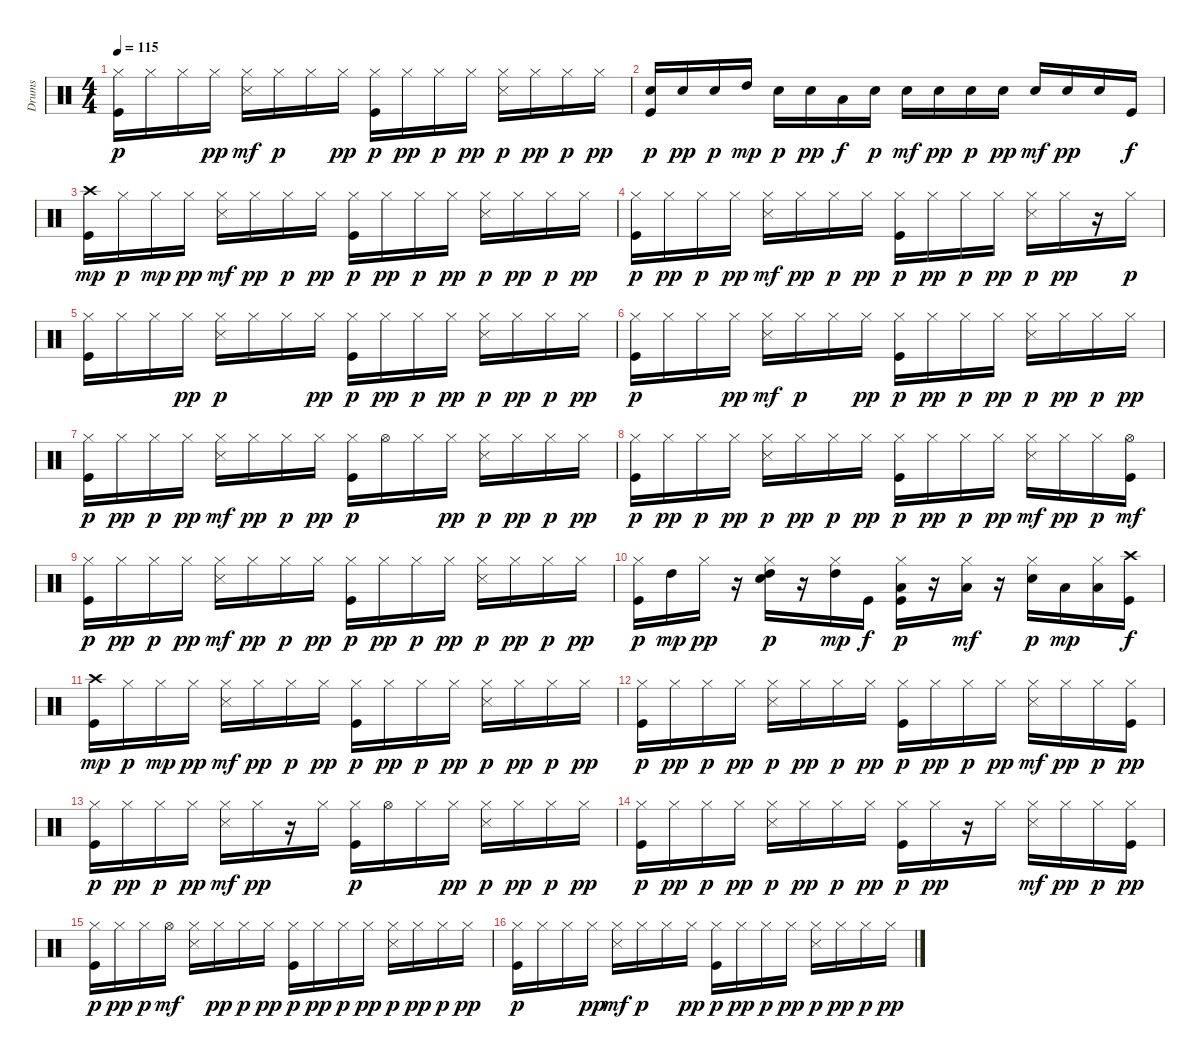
\track ("Drums  " "Drums  ") {instrument percussion}
\staff {score}
\articulation defaults
\ts (4 4)
\tempo 115
\clef neutral
\ks c
("Kick (hit)" "Hi-Hat (closed)").16{dy p} "Hi-Hat (closed)".16 "Hi-Hat (closed)".16 "Hi-Hat (closed)".16{dy pp} ("Hi-Hat (closed)" "Snare (side stick) 3").16{dy mf} "Hi-Hat (closed)".16{dy p} "Hi-Hat (closed)".16 "Hi-Hat (closed)".16{dy pp} ("Kick (hit)" "Hi-Hat (closed)").16{dy p} "Hi-Hat (closed)".16{dy pp} "Hi-Hat (closed)".16{dy p} "Hi-Hat (closed)".16{dy pp} ("Hi-Hat (closed)" "Snare (side stick) 3").16{dy p} "Hi-Hat (closed)".16{dy pp} "Hi-Hat (closed)".16{dy p} "Hi-Hat (closed)".16{dy pp} |
("Kick (hit)" "Snare (hit) 2").16{dy p} "Snare (hit) 2".16{dy pp} "Snare (hit) 2".16{dy p} "High Tom (hit)".16{dy mp} "Snare (hit) 2".16{dy p} "Snare (hit) 2".16{dy pp} "Low Tom (hit)".16{dy f} "Snare (hit) 2".16{dy p} "Snare (hit) 2".16{dy mf} "Snare (hit) 2".16{dy pp} "Snare (hit) 2".16{dy p} "Snare (hit) 2".16{dy pp} "Snare (hit) 2".16{dy mf} "Snare (hit) 2".16{dy pp} "Snare (hit) 2".16 "Kick (hit)".16{dy f} |
("Kick (hit)" "Crash high (hit)").16{dy mp} "Hi-Hat (closed)".16{dy p} "Hi-Hat (closed)".16{dy mp} "Hi-Hat (closed)".16{dy pp} ("Hi-Hat (closed)" "Snare (side stick) 3").16{dy mf} "Hi-Hat (closed)".16{dy pp} "Hi-Hat (closed)".16{dy p} "Hi-Hat (closed)".16{dy pp} ("Kick (hit)" "Hi-Hat (closed)").16{dy p} "Hi-Hat (closed)".16{dy pp} "Hi-Hat (closed)".16{dy p} "Hi-Hat (closed)".16{dy pp} ("Hi-Hat (closed)" "Snare (side stick) 3").16{dy p} "Hi-Hat (closed)".16{dy pp} "Hi-Hat (closed)".16{dy p} "Hi-Hat (closed)".16{dy pp} |
("Kick (hit)" "Hi-Hat (closed)").16{dy p} "Hi-Hat (closed)".16{dy pp} "Hi-Hat (closed)".16{dy p} "Hi-Hat (closed)".16{dy pp} ("Hi-Hat (closed)" "Snare (side stick) 3").16{dy mf} "Hi-Hat (closed)".16{dy pp} "Hi-Hat (closed)".16{dy p} "Hi-Hat (closed)".16{dy pp} ("Kick (hit)" "Hi-Hat (closed)").16{dy p} "Hi-Hat (closed)".16{dy pp} "Hi-Hat (closed)".16{dy p} "Hi-Hat (closed)".16{dy pp} ("Hi-Hat (closed)" "Snare (side stick) 3").16{dy p} "Hi-Hat (closed)".16{dy pp} r.16 "Hi-Hat (closed)".16{dy p} |
("Kick (hit)" "Hi-Hat (closed)").16 "Hi-Hat (closed)".16 "Hi-Hat (closed)".16 "Hi-Hat (closed)".16{dy pp} ("Hi-Hat (closed)" "Snare (side stick) 3").16{dy p} "Hi-Hat (closed)".16 "Hi-Hat (closed)".16 "Hi-Hat (closed)".16{dy pp} ("Kick (hit)" "Hi-Hat (closed)").16{dy p} "Hi-Hat (closed)".16{dy pp} "Hi-Hat (closed)".16{dy p} "Hi-Hat (closed)".16{dy pp} ("Hi-Hat (closed)" "Snare (side stick) 3").16{dy p} "Hi-Hat (closed)".16{dy pp} "Hi-Hat (closed)".16{dy p} "Hi-Hat (closed)".16{dy pp} |
("Kick (hit)" "Hi-Hat (closed)").16{dy p} "Hi-Hat (closed)".16 "Hi-Hat (closed)".16 "Hi-Hat (closed)".16{dy pp} ("Hi-Hat (closed)" "Snare (side stick) 3").16{dy mf} "Hi-Hat (closed)".16{dy p} "Hi-Hat (closed)".16 "Hi-Hat (closed)".16{dy pp} ("Kick (hit)" "Hi-Hat (closed)").16{dy p} "Hi-Hat (closed)".16{dy pp} "Hi-Hat (closed)".16{dy p} "Hi-Hat (closed)".16{dy pp} ("Hi-Hat (closed)" "Snare (side stick) 3").16{dy p} "Hi-Hat (closed)".16{dy pp} "Hi-Hat (closed)".16{dy p} "Hi-Hat (closed)".16{dy pp} |
("Kick (hit)" "Hi-Hat (closed)").16{dy p} "Hi-Hat (closed)".16{dy pp} "Hi-Hat (closed)".16{dy p} "Hi-Hat (closed)".16{dy pp} ("Hi-Hat (closed)" "Snare (side stick) 3").16{dy mf} "Hi-Hat (closed)".16{dy pp} "Hi-Hat (closed)".16{dy p} "Hi-Hat (closed)".16{dy pp} ("Kick (hit)" "Hi-Hat (closed)").16{dy p} "Hi-Hat (open)".16 "Hi-Hat (closed)".16 "Hi-Hat (closed)".16{dy pp} ("Hi-Hat (closed)" "Snare (side stick) 3").16{dy p} "Hi-Hat (closed)".16{dy pp} "Hi-Hat (closed)".16{dy p} "Hi-Hat (closed)".16{dy pp} |
("Kick (hit)" "Hi-Hat (closed)").16{dy p} "Hi-Hat (closed)".16{dy pp} "Hi-Hat (closed)".16{dy p} "Hi-Hat (closed)".16{dy pp} ("Hi-Hat (closed)" "Snare (side stick) 3").16{dy p} "Hi-Hat (closed)".16{dy pp} "Hi-Hat (closed)".16{dy p} "Hi-Hat (closed)".16{dy pp} ("Kick (hit)" "Hi-Hat (closed)").16{dy p} "Hi-Hat (closed)".16{dy pp} "Hi-Hat (closed)".16{dy p} "Hi-Hat (closed)".16{dy pp} ("Hi-Hat (closed)" "Snare (side stick) 3").16{dy mf} "Hi-Hat (closed)".16{dy pp} "Hi-Hat (closed)".16{dy p} ("Kick (hit)" "Hi-Hat (open)").16{dy mf} |
("Kick (hit)" "Hi-Hat (closed)").16{dy p} "Hi-Hat (closed)".16{dy pp} "Hi-Hat (closed)".16{dy p} "Hi-Hat (closed)".16{dy pp} ("Hi-Hat (closed)" "Snare (side stick) 3").16{dy mf} "Hi-Hat (closed)".16{dy pp} "Hi-Hat (closed)".16{dy p} "Hi-Hat (closed)".16{dy pp} ("Kick (hit)" "Hi-Hat (closed)").16{dy p} "Hi-Hat (closed)".16{dy pp} "Hi-Hat (closed)".16{dy p} "Hi-Hat (closed)".16{dy pp} ("Hi-Hat (closed)" "Snare (side stick) 3").16{dy p} "Hi-Hat (closed)".16{dy pp} "Hi-Hat (closed)".16{dy p} "Hi-Hat (closed)".16{dy pp} |
("Kick (hit)" "Hi-Hat (closed)").16{dy p} "High Tom (hit)".16{dy mp} "Hi-Hat (closed)".16{dy pp} r.16 ("Snare (hit) 2" "Hi-Hat (closed)" "High Tom (hit)").16{dy p} r.16 ("Hi-Hat (closed)" "High Tom (hit)").16{dy mp} "Kick (hit)".16{dy f} ("Kick (hit)" "Hi-Hat (closed)" "Low Tom (hit)").16{dy p} r.16 ("Hi-Hat (closed)" "Low Tom (hit)").16{dy mf} r.16 ("Snare (hit) 2" "Hi-Hat (closed)").16{dy p} "Low Floor Tom (hit)".16{dy mp} ("Hi-Hat (closed)" "Low Floor Tom (hit)").16 ("Kick (hit)" "Crash high (hit)").16{dy f} |
("Kick (hit)" "Crash high (hit)").16{dy mp} "Hi-Hat (closed)".16{dy p} "Hi-Hat (closed)".16{dy mp} "Hi-Hat (closed)".16{dy pp} ("Hi-Hat (closed)" "Snare (side stick) 3").16{dy mf} "Hi-Hat (closed)".16{dy pp} "Hi-Hat (closed)".16{dy p} "Hi-Hat (closed)".16{dy pp} ("Kick (hit)" "Hi-Hat (closed)").16{dy p} "Hi-Hat (closed)".16{dy pp} "Hi-Hat (closed)".16{dy p} "Hi-Hat (closed)".16{dy pp} ("Hi-Hat (closed)" "Snare (side stick) 3").16{dy p} "Hi-Hat (closed)".16{dy pp} "Hi-Hat (closed)".16{dy p} "Hi-Hat (closed)".16{dy pp} |
("Kick (hit)" "Hi-Hat (closed)").16{dy p} "Hi-Hat (closed)".16{dy pp} "Hi-Hat (closed)".16{dy p} "Hi-Hat (closed)".16{dy pp} ("Hi-Hat (closed)" "Snare (side stick) 3").16{dy p} "Hi-Hat (closed)".16{dy pp} "Hi-Hat (closed)".16{dy p} "Hi-Hat (closed)".16{dy pp} ("Kick (hit)" "Hi-Hat (closed)").16{dy p} "Hi-Hat (closed)".16{dy pp} "Hi-Hat (closed)".16{dy p} "Hi-Hat (closed)".16{dy pp} ("Hi-Hat (closed)" "Snare (side stick) 3").16{dy mf} "Hi-Hat (closed)".16{dy pp} "Hi-Hat (closed)".16{dy p} ("Kick (hit)" "Hi-Hat (closed)").16{dy pp} |
("Kick (hit)" "Hi-Hat (closed)").16{dy p} "Hi-Hat (closed)".16{dy pp} "Hi-Hat (closed)".16{dy p} "Hi-Hat (closed)".16{dy pp} ("Hi-Hat (closed)" "Snare (side stick) 3").16{dy mf} "Hi-Hat (closed)".16{dy pp} r.16 "Hi-Hat (closed)".16 ("Kick (hit)" "Hi-Hat (closed)").16{dy p} "Hi-Hat (open)".16 "Hi-Hat (closed)".16 "Hi-Hat (closed)".16{dy pp} ("Hi-Hat (closed)" "Snare (side stick) 3").16{dy p} "Hi-Hat (closed)".16{dy pp} "Hi-Hat (closed)".16{dy p} "Hi-Hat (closed)".16{dy pp} |
("Kick (hit)" "Hi-Hat (closed)").16{dy p} "Hi-Hat (closed)".16{dy pp} "Hi-Hat (closed)".16{dy p} "Hi-Hat (closed)".16{dy pp} ("Hi-Hat (closed)" "Snare (side stick) 3").16{dy p} "Hi-Hat (closed)".16{dy pp} "Hi-Hat (closed)".16{dy p} "Hi-Hat (closed)".16{dy pp} ("Kick (hit)" "Hi-Hat (closed)").16{dy p} "Hi-Hat (closed)".16{dy pp} r.16 "Hi-Hat (closed)".16 ("Hi-Hat (closed)" "Snare (side stick) 3").16{dy mf} "Hi-Hat (closed)".16{dy pp} "Hi-Hat (closed)".16{dy p} ("Kick (hit)" "Hi-Hat (closed)").16{dy pp} |
("Kick (hit)" "Hi-Hat (closed)").16{dy p} "Hi-Hat (closed)".16{dy pp} "Hi-Hat (closed)".16{dy p} "Hi-Hat (open)".16{dy mf} ("Hi-Hat (closed)" "Snare (side stick) 3").16 "Hi-Hat (closed)".16{dy pp} "Hi-Hat (closed)".16{dy p} "Hi-Hat (closed)".16{dy pp} ("Kick (hit)" "Hi-Hat (closed)").16{dy p} "Hi-Hat (closed)".16{dy pp} "Hi-Hat (closed)".16{dy p} "Hi-Hat (closed)".16{dy pp} ("Hi-Hat (closed)" "Snare (side stick) 3").16{dy p} "Hi-Hat (closed)".16{dy pp} "Hi-Hat (closed)".16{dy p} "Hi-Hat (closed)".16{dy pp} |
("Kick (hit)" "Hi-Hat (closed)").16{dy p} "Hi-Hat (closed)".16 "Hi-Hat (closed)".16 "Hi-Hat (closed)".16{dy pp} ("Hi-Hat (closed)" "Snare (side stick) 3").16{dy mf} "Hi-Hat (closed)".16{dy p} "Hi-Hat (closed)".16 "Hi-Hat (closed)".16{dy pp} ("Kick (hit)" "Hi-Hat (closed)").16{dy p} "Hi-Hat (closed)".16{dy pp} "Hi-Hat (closed)".16{dy p} "Hi-Hat (closed)".16{dy pp} ("Hi-Hat (closed)" "Snare (side stick) 3").16{dy p} "Hi-Hat (closed)".16{dy pp} "Hi-Hat (closed)".16{dy p} "Hi-Hat (closed)".16{dy pp}
